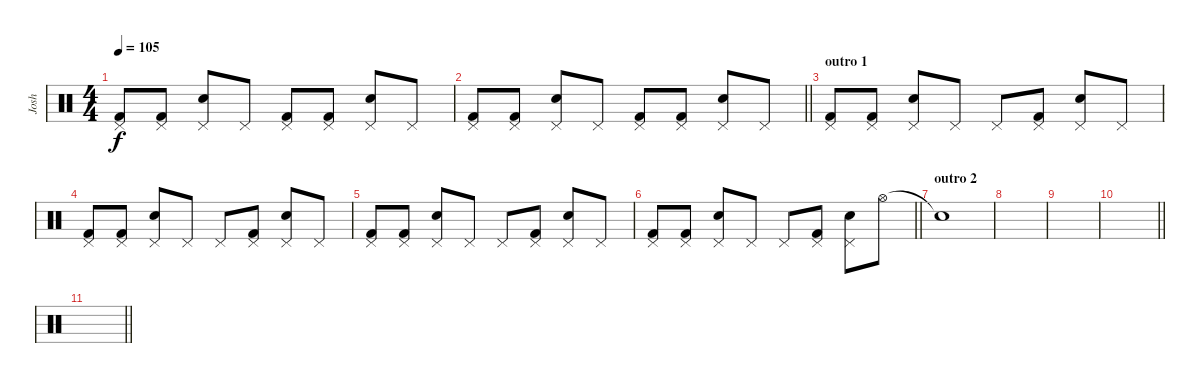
\track ("Josh" "Josh") {instrument percussion}
\staff {score}
\articulation defaults
\ts (4 4)
\tempo 105
\clef neutral
\ks c
("Pedal Hi-Hat (hit)" "Kick (hit) 2").8{dy f} ("Pedal Hi-Hat (hit)" "Kick (hit) 2").8 ("Pedal Hi-Hat (hit)" "Electric Snare (hit)").8 "Pedal Hi-Hat (hit)".8 ("Pedal Hi-Hat (hit)" "Kick (hit) 2").8 ("Pedal Hi-Hat (hit)" "Kick (hit) 2").8 ("Pedal Hi-Hat (hit)" "Electric Snare (hit)").8 "Pedal Hi-Hat (hit)".8 |
\barLineRight lightlight
("Pedal Hi-Hat (hit)" "Kick (hit) 2").8 ("Pedal Hi-Hat (hit)" "Kick (hit) 2").8 ("Pedal Hi-Hat (hit)" "Electric Snare (hit)").8 "Pedal Hi-Hat (hit)".8 ("Pedal Hi-Hat (hit)" "Kick (hit) 2").8 ("Pedal Hi-Hat (hit)" "Kick (hit) 2").8 ("Pedal Hi-Hat (hit)" "Electric Snare (hit)").8 "Pedal Hi-Hat (hit)".8 |
\section ("" "outro 1")
("Pedal Hi-Hat (hit)" "Kick (hit) 2").8 ("Pedal Hi-Hat (hit)" "Kick (hit) 2").8 ("Pedal Hi-Hat (hit)" "Electric Snare (hit)").8 "Pedal Hi-Hat (hit)".8 "Pedal Hi-Hat (hit)".8 ("Pedal Hi-Hat (hit)" "Kick (hit) 2").8 ("Pedal Hi-Hat (hit)" "Electric Snare (hit)").8 "Pedal Hi-Hat (hit)".8 |
("Pedal Hi-Hat (hit)" "Kick (hit) 2").8 ("Pedal Hi-Hat (hit)" "Kick (hit) 2").8 ("Pedal Hi-Hat (hit)" "Electric Snare (hit)").8 "Pedal Hi-Hat (hit)".8 "Pedal Hi-Hat (hit)".8 ("Pedal Hi-Hat (hit)" "Kick (hit) 2").8 ("Pedal Hi-Hat (hit)" "Electric Snare (hit)").8 "Pedal Hi-Hat (hit)".8 |
("Pedal Hi-Hat (hit)" "Kick (hit) 2").8 ("Pedal Hi-Hat (hit)" "Kick (hit) 2").8 ("Pedal Hi-Hat (hit)" "Electric Snare (hit)").8 "Pedal Hi-Hat (hit)".8 "Pedal Hi-Hat (hit)".8 ("Pedal Hi-Hat (hit)" "Kick (hit) 2").8 ("Pedal Hi-Hat (hit)" "Electric Snare (hit)").8 "Pedal Hi-Hat (hit)".8 |
\barLineRight lightlight
("Pedal Hi-Hat (hit)" "Kick (hit) 2").8 ("Pedal Hi-Hat (hit)" "Kick (hit) 2").8 ("Pedal Hi-Hat (hit)" "Electric Snare (hit)").8 "Pedal Hi-Hat (hit)".8 "Pedal Hi-Hat (hit)".8 ("Pedal Hi-Hat (hit)" "Kick (hit) 2").8 ("Pedal Hi-Hat (hit)" "Electric Snare (hit)").8 "Hi-Hat (open)".8 |
\section ("" "outro 2")
"Snare (hit)"{t}.1 |
|
|
\barLineRight lightlight
|
\barLineRight lightlight
